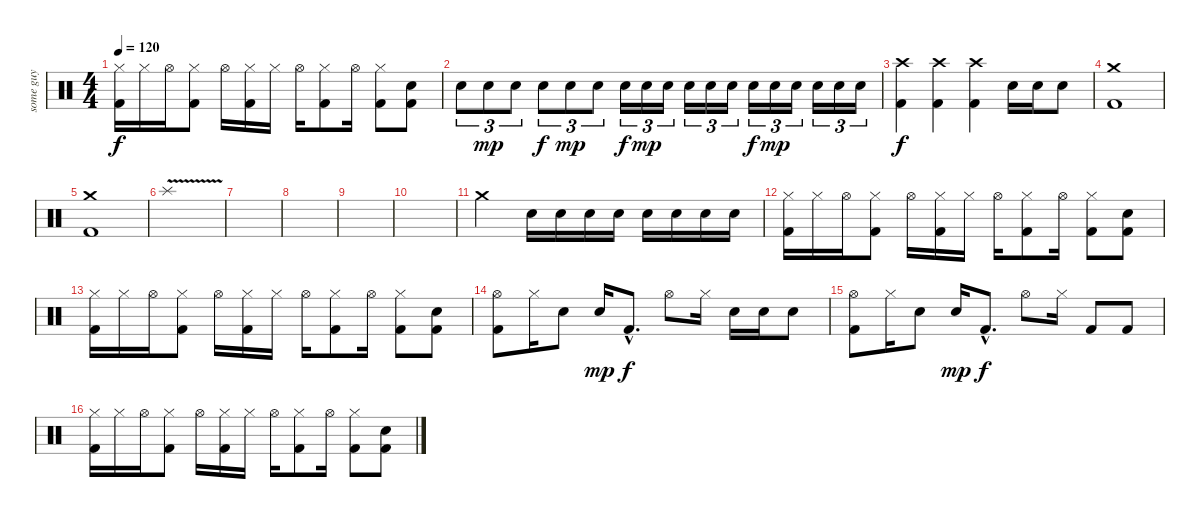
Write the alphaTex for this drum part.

\track ("some guy" "some guy") {instrument percussion}
\staff {score}
\articulation defaults
\ts (4 4)
\tempo 120
\clef neutral
\ks c
("Hi-Hat (closed)" "Kick (hit) 2").16{dy f} "Hi-Hat (closed)".16 "Hi-Hat (open)".16 ("Hi-Hat (closed)" "Kick (hit) 2").8 "Hi-Hat (open)".16 ("Hi-Hat (closed)" "Kick (hit) 2").16 "Hi-Hat (closed)".16 "Hi-Hat (open)".16 ("Hi-Hat (closed)" "Kick (hit) 2").8 "Hi-Hat (open)".16 ("Hi-Hat (closed)" "Kick (hit) 2").8 ("Electric Snare (hit)" "Kick (hit) 2").8 |
"Electric Snare (hit)".8{tu (3 2)} "Electric Snare (hit)".8{tu (3 2) dy mp} "Electric Snare (hit)".8{tu (3 2)} "Electric Snare (hit)".8{tu (3 2) dy f} "Electric Snare (hit)".8{tu (3 2) dy mp} "Electric Snare (hit)".8{tu (3 2)} "Electric Snare (hit)".16{tu (3 2) dy f} "Electric Snare (hit)".16{tu (3 2) dy mp} "Electric Snare (hit)".16{tu (3 2)} "Electric Snare (hit)".16{tu (3 2)} "Electric Snare (hit)".16{tu (3 2)} "Electric Snare (hit)".16{tu (3 2)} "Electric Snare (hit)".16{tu (3 2) dy f} "Electric Snare (hit)".16{tu (3 2) dy mp} "Electric Snare (hit)".16{tu (3 2)} "Electric Snare (hit)".16{tu (3 2)} "Electric Snare (hit)".16{tu (3 2)} "Electric Snare (hit)".16{tu (3 2)} |
("Crash high (hit)" "Kick (hit) 2").4{dy f} ("Crash high (hit)" "Kick (hit) 2").4 ("Crash high (hit)" "Kick (hit) 2").4 "Electric Snare (hit)".16 "Electric Snare (hit)".16 "Electric Snare (hit)".8 |
("Crash medium (hit)" "Kick (hit) 2").1 |
("Crash medium (hit)" "Kick (hit) 2").1 |
"Splash (hit)"{v}.1 |
|
|
|
|
"Crash medium (hit)".2 "Electric Snare (hit)".16 "Electric Snare (hit)".16 "Electric Snare (hit)".16 "Electric Snare (hit)".16 "Electric Snare (hit)".16 "Electric Snare (hit)".16 "Electric Snare (hit)".16 "Electric Snare (hit)".16 |
("Hi-Hat (closed)" "Kick (hit) 2").16 "Hi-Hat (closed)".16 "Hi-Hat (open)".16 ("Hi-Hat (closed)" "Kick (hit) 2").8 "Hi-Hat (open)".16 ("Hi-Hat (closed)" "Kick (hit) 2").16 "Hi-Hat (closed)".16 "Hi-Hat (open)".16 ("Hi-Hat (closed)" "Kick (hit) 2").8 "Hi-Hat (open)".16 ("Hi-Hat (closed)" "Kick (hit) 2").8 ("Electric Snare (hit)" "Kick (hit) 2").8 |
("Hi-Hat (closed)" "Kick (hit) 2").16 "Hi-Hat (closed)".16 "Hi-Hat (open)".16 ("Hi-Hat (closed)" "Kick (hit) 2").8 "Hi-Hat (open)".16 ("Hi-Hat (closed)" "Kick (hit) 2").16 "Hi-Hat (closed)".16 "Hi-Hat (open)".16 ("Hi-Hat (closed)" "Kick (hit) 2").8 "Hi-Hat (open)".16 ("Hi-Hat (closed)" "Kick (hit) 2").8 ("Electric Snare (hit)" "Kick (hit) 2").8 |
("Hi-Hat (open)" "Kick (hit) 2").8 "Hi-Hat (closed)".16 "Electric Snare (hit)".8 "Electric Snare (hit)".16{dy mp} "Kick (hit) 2"{hac}.8{d dy f} "Hi-Hat (open)".8 "Hi-Hat (closed)".16 "Electric Snare (hit)".16 "Electric Snare (hit)".16 "Electric Snare (hit)".8 |
("Hi-Hat (open)" "Kick (hit) 2").8 "Hi-Hat (closed)".16 "Electric Snare (hit)".8 "Electric Snare (hit)".16{dy mp} "Kick (hit) 2"{hac}.8{d dy f} "Hi-Hat (open)".8 "Hi-Hat (closed)".16 "Kick (hit) 2".8 "Kick (hit) 2".8 |
("Hi-Hat (closed)" "Kick (hit) 2").16 "Hi-Hat (closed)".16 "Hi-Hat (open)".16 ("Hi-Hat (closed)" "Kick (hit) 2").8 "Hi-Hat (open)".16 ("Hi-Hat (closed)" "Kick (hit) 2").16 "Hi-Hat (closed)".16 "Hi-Hat (open)".16 ("Hi-Hat (closed)" "Kick (hit) 2").8 "Hi-Hat (open)".16 ("Hi-Hat (closed)" "Kick (hit) 2").8 ("Electric Snare (hit)" "Kick (hit) 2").8
